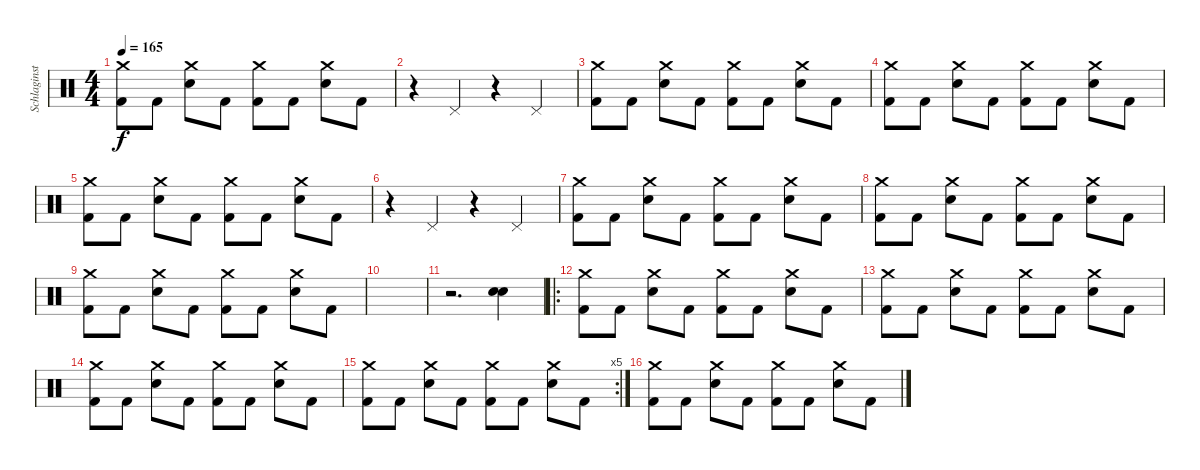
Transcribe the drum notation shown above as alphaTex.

\track ("Schlaginstrumente - Auswahl" "Schlaginst") {instrument percussion}
\staff {score}
\articulation defaults
\ts (4 4)
\tempo 165
\clef neutral
\ks c
("Crash medium (hit)" "Kick (hit) 2").8{dy f} "Kick (hit) 2".8 ("Crash medium (hit)" "Snare (hit) 2").8 "Kick (hit) 2".8 ("Crash medium (hit)" "Kick (hit) 2").8 "Kick (hit) 2".8 ("Crash medium (hit)" "Snare (hit) 2").8 "Kick (hit) 2".8 |
r.4 "Pedal Hi-Hat (hit)".4 r.4 "Pedal Hi-Hat (hit)".4 |
("Crash medium (hit)" "Kick (hit) 2").8 "Kick (hit) 2".8 ("Crash medium (hit)" "Snare (hit) 2").8 "Kick (hit) 2".8 ("Crash medium (hit)" "Kick (hit) 2").8 "Kick (hit) 2".8 ("Crash medium (hit)" "Snare (hit) 2").8 "Kick (hit) 2".8 |
("Crash medium (hit)" "Kick (hit) 2").8 "Kick (hit) 2".8 ("Crash medium (hit)" "Snare (hit) 2").8 "Kick (hit) 2".8 ("Crash medium (hit)" "Kick (hit) 2").8 "Kick (hit) 2".8 ("Crash medium (hit)" "Snare (hit) 2").8 "Kick (hit) 2".8 |
("Crash medium (hit)" "Kick (hit) 2").8 "Kick (hit) 2".8 ("Crash medium (hit)" "Snare (hit) 2").8 "Kick (hit) 2".8 ("Crash medium (hit)" "Kick (hit) 2").8 "Kick (hit) 2".8 ("Crash medium (hit)" "Snare (hit) 2").8 "Kick (hit) 2".8 |
r.4 "Pedal Hi-Hat (hit)".4 r.4 "Pedal Hi-Hat (hit)".4 |
("Crash medium (hit)" "Kick (hit) 2").8 "Kick (hit) 2".8 ("Crash medium (hit)" "Snare (hit) 2").8 "Kick (hit) 2".8 ("Crash medium (hit)" "Kick (hit) 2").8 "Kick (hit) 2".8 ("Crash medium (hit)" "Snare (hit) 2").8 "Kick (hit) 2".8 |
("Crash medium (hit)" "Kick (hit) 2").8 "Kick (hit) 2".8 ("Crash medium (hit)" "Snare (hit) 2").8 "Kick (hit) 2".8 ("Crash medium (hit)" "Kick (hit) 2").8 "Kick (hit) 2".8 ("Crash medium (hit)" "Snare (hit) 2").8 "Kick (hit) 2".8 |
("Crash medium (hit)" "Kick (hit) 2").8 "Kick (hit) 2".8 ("Crash medium (hit)" "Snare (hit) 2").8 "Kick (hit) 2".8 ("Crash medium (hit)" "Kick (hit) 2").8 "Kick (hit) 2".8 ("Crash medium (hit)" "Snare (hit) 2").8 "Kick (hit) 2".8 |
|
r.2{d} ("Snare (hit) 2" "Snare (hit) 2").4{bd 120} |
\ro
("Crash medium (hit)" "Kick (hit) 2").8 "Kick (hit) 2".8 ("Crash medium (hit)" "Snare (hit) 2").8 "Kick (hit) 2".8 ("Crash medium (hit)" "Kick (hit) 2").8 "Kick (hit) 2".8 ("Crash medium (hit)" "Snare (hit) 2").8 "Kick (hit) 2".8 |
("Crash medium (hit)" "Kick (hit) 2").8 "Kick (hit) 2".8 ("Crash medium (hit)" "Snare (hit) 2").8 "Kick (hit) 2".8 ("Crash medium (hit)" "Kick (hit) 2").8 "Kick (hit) 2".8 ("Crash medium (hit)" "Snare (hit) 2").8 "Kick (hit) 2".8 |
("Crash medium (hit)" "Kick (hit) 2").8 "Kick (hit) 2".8 ("Crash medium (hit)" "Snare (hit) 2").8 "Kick (hit) 2".8 ("Crash medium (hit)" "Kick (hit) 2").8 "Kick (hit) 2".8 ("Crash medium (hit)" "Snare (hit) 2").8 "Kick (hit) 2".8 |
\rc 5
("Crash medium (hit)" "Kick (hit) 2").8 "Kick (hit) 2".8 ("Crash medium (hit)" "Snare (hit) 2").8 "Kick (hit) 2".8 ("Crash medium (hit)" "Kick (hit) 2").8 "Kick (hit) 2".8 ("Crash medium (hit)" "Snare (hit) 2").8 "Kick (hit) 2".8 |
("Crash medium (hit)" "Kick (hit) 2").8 "Kick (hit) 2".8 ("Crash medium (hit)" "Snare (hit) 2").8 "Kick (hit) 2".8 ("Crash medium (hit)" "Kick (hit) 2").8 "Kick (hit) 2".8 ("Crash medium (hit)" "Snare (hit) 2").8 "Kick (hit) 2".8
